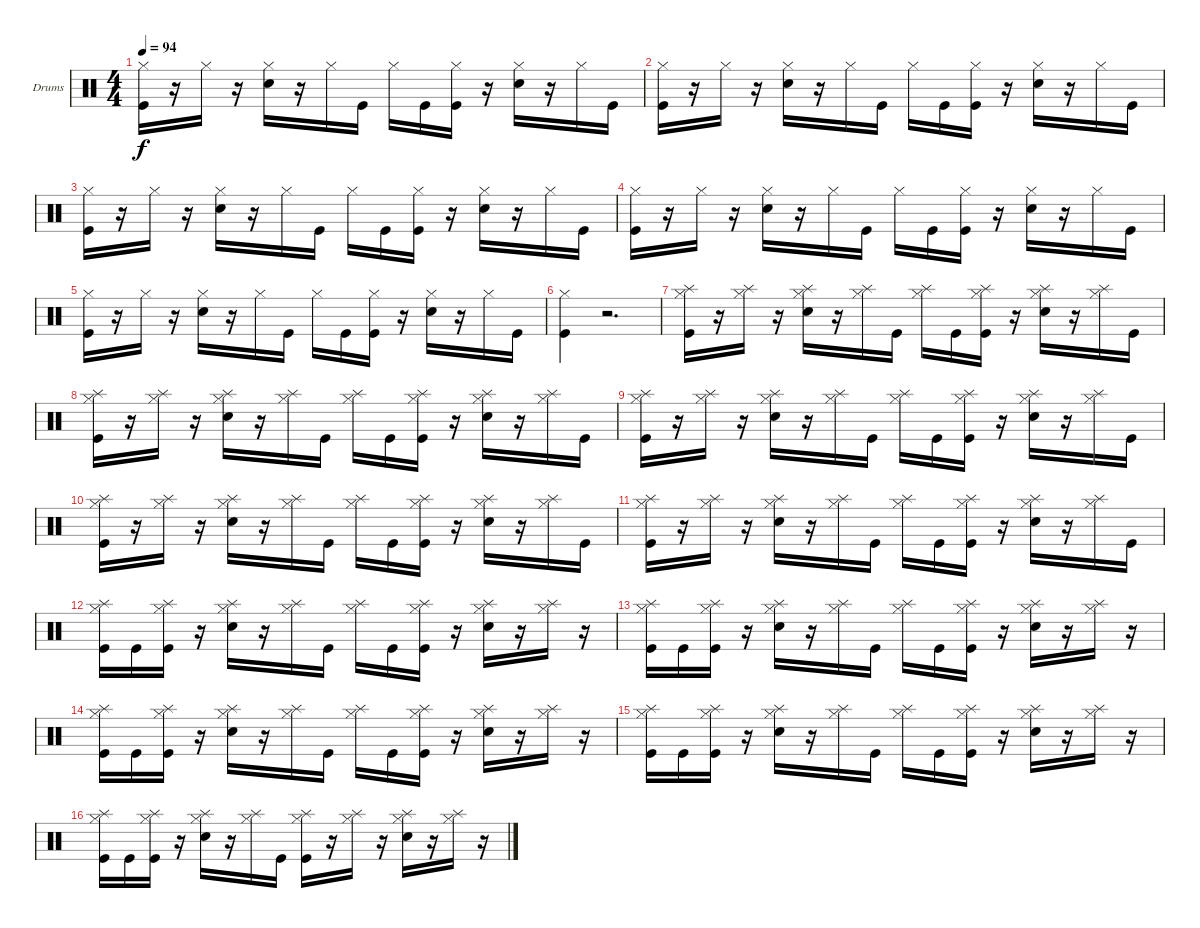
\defaultSystemsLayout 4
\bracketExtendMode groupsimilarinstruments
\firstSystemTrackNameOrientation horizontal
\otherSystemsTrackNameOrientation horizontal
\track ("Lori Peters (Drums)" "Drums") {instrument percussion}
\staff {score}
\articulation defaults
\ts (4 4)
\tempo 94
\clef neutral
\ks c
("Hi-Hat (closed)" "Kick (hit)").16{dy f} r.16 "Hi-Hat (closed)".16 r.16 ("Hi-Hat (closed)" "Snare (hit) 2").16 r.16 "Hi-Hat (closed)".16 "Kick (hit)".16 "Hi-Hat (closed)".16 "Kick (hit)".16 ("Hi-Hat (closed)" "Kick (hit)").16 r.16 ("Hi-Hat (closed)" "Snare (hit) 2").16 r.16 "Hi-Hat (closed)".16 "Kick (hit)".16 |
("Hi-Hat (closed)" "Kick (hit)").16 r.16 "Hi-Hat (closed)".16 r.16 ("Hi-Hat (closed)" "Snare (hit) 2").16 r.16 "Hi-Hat (closed)".16 "Kick (hit)".16 "Hi-Hat (closed)".16 "Kick (hit)".16 ("Hi-Hat (closed)" "Kick (hit)").16 r.16 ("Hi-Hat (closed)" "Snare (hit) 2").16 r.16 "Hi-Hat (closed)".16 "Kick (hit)".16 |
("Hi-Hat (closed)" "Kick (hit)").16 r.16 "Hi-Hat (closed)".16 r.16 ("Hi-Hat (closed)" "Snare (hit) 2").16 r.16 "Hi-Hat (closed)".16 "Kick (hit)".16 "Hi-Hat (closed)".16 "Kick (hit)".16 ("Hi-Hat (closed)" "Kick (hit)").16 r.16 ("Hi-Hat (closed)" "Snare (hit) 2").16 r.16 "Hi-Hat (closed)".16 "Kick (hit)".16 |
("Hi-Hat (closed)" "Kick (hit)").16 r.16 "Hi-Hat (closed)".16 r.16 ("Hi-Hat (closed)" "Snare (hit) 2").16 r.16 "Hi-Hat (closed)".16 "Kick (hit)".16 "Hi-Hat (closed)".16 "Kick (hit)".16 ("Hi-Hat (closed)" "Kick (hit)").16 r.16 ("Hi-Hat (closed)" "Snare (hit) 2").16 r.16 "Hi-Hat (closed)".16 "Kick (hit)".16 |
("Hi-Hat (closed)" "Kick (hit)").16 r.16 "Hi-Hat (closed)".16 r.16 ("Hi-Hat (closed)" "Snare (hit) 2").16 r.16 "Hi-Hat (closed)".16 "Kick (hit)".16 "Hi-Hat (closed)".16 "Kick (hit)".16 ("Hi-Hat (closed)" "Kick (hit)").16 r.16 ("Hi-Hat (closed)" "Snare (hit) 2").16 r.16 "Hi-Hat (closed)".16 "Kick (hit)".16 |
\scale
0.321839 ("Hi-Hat (closed)" "Kick (hit)").4 r.2{d} |
\scale
0.321839 ("Hi-Hat (closed)" "Kick (hit)" "Splash (hit)").16 r.16 ("Hi-Hat (closed)" "Splash (hit)").16 r.16 ("Hi-Hat (closed)" "Snare (hit) 2" "Splash (hit)").16 r.16 ("Hi-Hat (closed)" "Splash (hit)").16 "Kick (hit)".16 ("Hi-Hat (closed)" "Splash (hit)").16 "Kick (hit)".16 ("Hi-Hat (closed)" "Kick (hit)" "Splash (hit)").16 r.16 ("Hi-Hat (closed)" "Snare (hit) 2" "Splash (hit)").16 r.16 ("Hi-Hat (closed)" "Splash (hit)").16 "Kick (hit)".16 |
\scale
0.333333 ("Hi-Hat (closed)" "Kick (hit)" "Splash (hit)").16 r.16 ("Hi-Hat (closed)" "Splash (hit)").16 r.16 ("Hi-Hat (closed)" "Snare (hit) 2" "Splash (hit)").16 r.16 ("Hi-Hat (closed)" "Splash (hit)").16 "Kick (hit)".16 ("Hi-Hat (closed)" "Splash (hit)").16 "Kick (hit)".16 ("Hi-Hat (closed)" "Kick (hit)" "Splash (hit)").16 r.16 ("Hi-Hat (closed)" "Snare (hit) 2" "Splash (hit)").16 r.16 ("Hi-Hat (closed)" "Splash (hit)").16 "Kick (hit)".16 |
\scale
0.333333 ("Hi-Hat (closed)" "Kick (hit)" "Splash (hit)").16 r.16 ("Hi-Hat (closed)" "Splash (hit)").16 r.16 ("Hi-Hat (closed)" "Snare (hit) 2" "Splash (hit)").16 r.16 ("Hi-Hat (closed)" "Splash (hit)").16 "Kick (hit)".16 ("Hi-Hat (closed)" "Splash (hit)").16 "Kick (hit)".16 ("Hi-Hat (closed)" "Kick (hit)" "Splash (hit)").16 r.16 ("Hi-Hat (closed)" "Snare (hit) 2" "Splash (hit)").16 r.16 ("Hi-Hat (closed)" "Splash (hit)").16 "Kick (hit)".16 |
\scale
0.333333 ("Hi-Hat (closed)" "Kick (hit)" "Splash (hit)").16 r.16 ("Hi-Hat (closed)" "Splash (hit)").16 r.16 ("Hi-Hat (closed)" "Snare (hit) 2" "Splash (hit)").16 r.16 ("Hi-Hat (closed)" "Splash (hit)").16 "Kick (hit)".16 ("Hi-Hat (closed)" "Splash (hit)").16 "Kick (hit)".16 ("Hi-Hat (closed)" "Kick (hit)" "Splash (hit)").16 r.16 ("Hi-Hat (closed)" "Snare (hit) 2" "Splash (hit)").16 r.16 ("Hi-Hat (closed)" "Splash (hit)").16 "Kick (hit)".16 |
\scale
0.333333 ("Hi-Hat (closed)" "Kick (hit)" "Splash (hit)").16 r.16 ("Hi-Hat (closed)" "Splash (hit)").16 r.16 ("Hi-Hat (closed)" "Snare (hit) 2" "Splash (hit)").16 r.16 ("Hi-Hat (closed)" "Splash (hit)").16 "Kick (hit)".16 ("Hi-Hat (closed)" "Splash (hit)").16 "Kick (hit)".16 ("Hi-Hat (closed)" "Kick (hit)" "Splash (hit)").16 r.16 ("Hi-Hat (closed)" "Snare (hit) 2" "Splash (hit)").16 r.16 ("Hi-Hat (closed)" "Splash (hit)").16 "Kick (hit)".16 |
\scale
0.333333 ("Hi-Hat (closed)" "Kick (hit)" "Splash (hit)").16 "Kick (hit)".16 ("Hi-Hat (closed)" "Kick (hit)" "Splash (hit)").16 r.16 ("Hi-Hat (closed)" "Snare (hit) 2" "Splash (hit)").16 r.16 ("Hi-Hat (closed)" "Splash (hit)").16 "Kick (hit)".16 ("Hi-Hat (closed)" "Splash (hit)").16 "Kick (hit)".16 ("Hi-Hat (closed)" "Kick (hit)" "Splash (hit)").16 r.16 ("Hi-Hat (closed)" "Snare (hit) 2" "Splash (hit)").16 r.16 ("Hi-Hat (closed)" "Splash (hit)").16 r.16 |
\scale
0.333333 ("Hi-Hat (closed)" "Kick (hit)" "Splash (hit)").16 "Kick (hit)".16 ("Hi-Hat (closed)" "Kick (hit)" "Splash (hit)").16 r.16 ("Hi-Hat (closed)" "Snare (hit) 2" "Splash (hit)").16 r.16 ("Hi-Hat (closed)" "Splash (hit)").16 "Kick (hit)".16 ("Hi-Hat (closed)" "Splash (hit)").16 "Kick (hit)".16 ("Hi-Hat (closed)" "Kick (hit)" "Splash (hit)").16 r.16 ("Hi-Hat (closed)" "Snare (hit) 2" "Splash (hit)").16 r.16 ("Hi-Hat (closed)" "Splash (hit)").16 r.16 |
\scale
0.333333 ("Hi-Hat (closed)" "Kick (hit)" "Splash (hit)").16 "Kick (hit)".16 ("Hi-Hat (closed)" "Kick (hit)" "Splash (hit)").16 r.16 ("Hi-Hat (closed)" "Snare (hit) 2" "Splash (hit)").16 r.16 ("Hi-Hat (closed)" "Splash (hit)").16 "Kick (hit)".16 ("Hi-Hat (closed)" "Splash (hit)").16 "Kick (hit)".16 ("Hi-Hat (closed)" "Kick (hit)" "Splash (hit)").16 r.16 ("Hi-Hat (closed)" "Snare (hit) 2" "Splash (hit)").16 r.16 ("Hi-Hat (closed)" "Splash (hit)").16 r.16 |
\scale
0.333333 ("Hi-Hat (closed)" "Kick (hit)" "Splash (hit)").16 "Kick (hit)".16 ("Hi-Hat (closed)" "Kick (hit)" "Splash (hit)").16 r.16 ("Hi-Hat (closed)" "Snare (hit) 2" "Splash (hit)").16 r.16 ("Hi-Hat (closed)" "Splash (hit)").16 "Kick (hit)".16 ("Hi-Hat (closed)" "Splash (hit)").16 "Kick (hit)".16 ("Hi-Hat (closed)" "Kick (hit)" "Splash (hit)").16 r.16 ("Hi-Hat (closed)" "Snare (hit) 2" "Splash (hit)").16 r.16 ("Hi-Hat (closed)" "Splash (hit)").16 r.16 |
\scale
0.333333 ("Hi-Hat (closed)" "Kick (hit)" "Splash (hit)").16 "Kick (hit)".16 ("Hi-Hat (closed)" "Kick (hit)" "Splash (hit)").16 r.16 ("Hi-Hat (closed)" "Snare (hit) 2" "Splash (hit)").16 r.16 ("Hi-Hat (closed)" "Splash (hit)").16 "Kick (hit)".16 ("Hi-Hat (closed)" "Kick (hit)" "Splash (hit)").16 r.16 ("Hi-Hat (closed)" "Splash (hit)").16 r.16 ("Hi-Hat (closed)" "Snare (hit) 2" "Splash (hit)").16 r.16 ("Hi-Hat (closed)" "Splash (hit)").16 r.16
